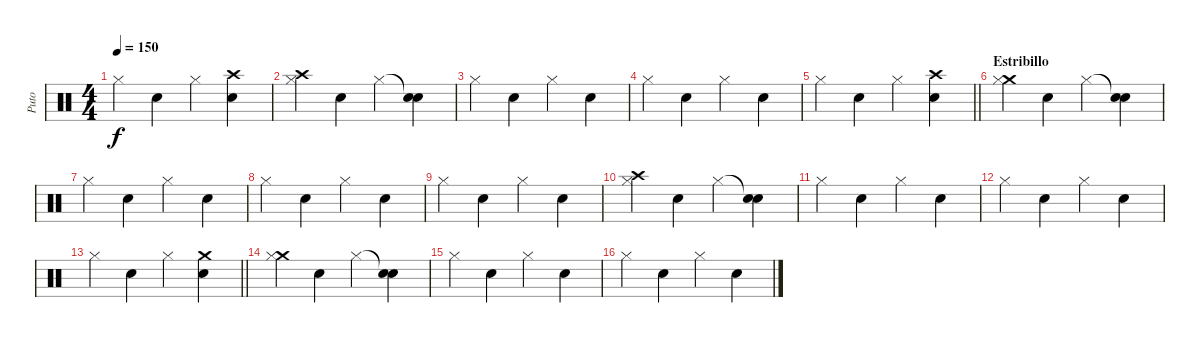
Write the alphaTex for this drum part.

\track ("Puto" "Puto") {instrument percussion}
\staff {score}
\articulation defaults
\ts (4 4)
\tempo 150
\clef neutral
\ks c "Hi-Hat (closed)".4{dy f} "Electric Snare (hit)".4 "Hi-Hat (closed)".4
("Crash high (hit)" "Electric Snare (hit)").4 |
("Crash high (hit)" "Hi-Hat (closed)").4 "Electric Snare (hit)".4 "Hi-Hat (closed)".4 ("Snare (hit)"{t} "Electric Snare (hit)").4 |
"Hi-Hat (closed)".4 "Electric Snare (hit)".4 "Hi-Hat (closed)".4 "Electric Snare (hit)".4 |
"Hi-Hat (closed)".4 "Electric Snare (hit)".4 "Hi-Hat (closed)".4 "Electric Snare (hit)".4 |
\barLineRight lightlight "Hi-Hat (closed)".4 "Electric Snare (hit)".4 "Hi-Hat (closed)".4
("Crash high (hit)" "Electric Snare (hit)").4 |
\section ("" "Estribillo")
("Crash medium (hit)" "Hi-Hat (closed)").4 "Electric Snare (hit)".4 "Hi-Hat (closed)".4 ("Snare (hit)"{t} "Electric Snare (hit)").4 |
"Hi-Hat (closed)".4 "Electric Snare (hit)".4 "Hi-Hat (closed)".4 "Electric Snare (hit)".4 |
"Hi-Hat (closed)".4 "Electric Snare (hit)".4 "Hi-Hat (closed)".4 "Electric Snare (hit)".4 |
"Hi-Hat (closed)".4 "Electric Snare (hit)".4 "Hi-Hat (closed)".4 "Electric Snare (hit)".4 |
("Crash high (hit)" "Hi-Hat (closed)").4 "Electric Snare (hit)".4 "Hi-Hat (closed)".4 ("Snare (hit)"{t} "Electric Snare (hit)").4 |
"Hi-Hat (closed)".4 "Electric Snare (hit)".4 "Hi-Hat (closed)".4 "Electric Snare (hit)".4 |
"Hi-Hat (closed)".4 "Electric Snare (hit)".4 "Hi-Hat (closed)".4 "Electric Snare (hit)".4 |
\barLineRight lightlight "Hi-Hat (closed)".4 "Electric Snare (hit)".4 "Hi-Hat (closed)".4
("Crash medium (hit)" "Electric Snare (hit)").4 |
("Crash medium (hit)" "Hi-Hat (closed)").4 "Electric Snare (hit)".4 "Hi-Hat (closed)".4 ("Snare (hit)"{t} "Electric Snare (hit)").4 |
"Hi-Hat (closed)".4 "Electric Snare (hit)".4 "Hi-Hat (closed)".4 "Electric Snare (hit)".4 |
"Hi-Hat (closed)".4 "Electric Snare (hit)".4 "Hi-Hat (closed)".4 "Electric Snare (hit)".4
